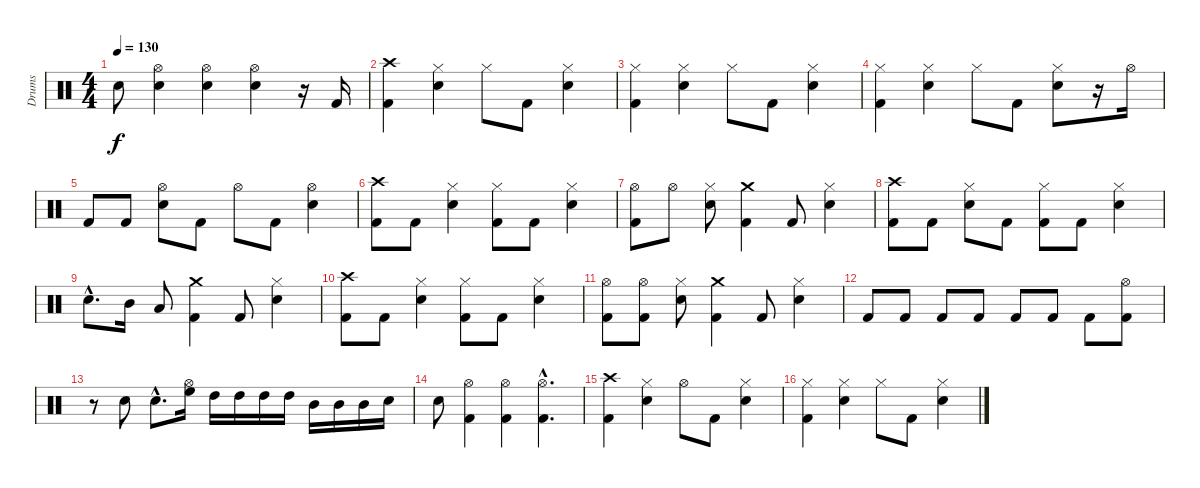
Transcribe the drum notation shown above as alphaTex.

\track ("Drums" "Drums") {instrument percussion}
\staff {score}
\articulation defaults
\ts (4 4)
\tempo 130
\clef neutral
\ks c "Snare (hit) 2".8{dy f}
("Snare (hit) 2" "Hi-Hat (open)").4 ("Snare (hit) 2" "Hi-Hat (open)").4 ("Snare (hit) 2" "Hi-Hat (open)").4 r.16 "Kick (hit) 2".16 |
("Kick (hit) 2" "Crash high (hit)").4 ("Snare (hit) 2" "Hi-Hat (closed)").4 "Hi-Hat (closed)".8 "Kick (hit) 2".8 ("Snare (hit) 2" "Hi-Hat (closed)").4 |
("Kick (hit) 2" "Hi-Hat (closed)").4 ("Snare (hit) 2" "Hi-Hat (closed)").4 "Hi-Hat (closed)".8 "Kick (hit) 2".8 ("Snare (hit) 2" "Hi-Hat (closed)").4 |
("Kick (hit) 2" "Hi-Hat (closed)").4 ("Snare (hit) 2" "Hi-Hat (closed)").4 "Hi-Hat (closed)".8 "Kick (hit) 2".8 ("Snare (hit) 2" "Hi-Hat (closed)").8 r.16 "Hi-Hat (open)".16 |
"Kick (hit) 2".8 "Kick (hit) 2".8 ("Snare (hit) 2" "Hi-Hat (open)").8 "Kick (hit) 2".8 "Hi-Hat (open)".8 "Kick (hit) 2".8 ("Snare (hit) 2" "Hi-Hat (open)").4 |
("Kick (hit) 2" "Crash high (hit)").8 "Kick (hit) 2".8 ("Snare (hit) 2" "Hi-Hat (closed)").4 ("Kick (hit) 2" "Hi-Hat (closed)").8 "Kick (hit) 2".8 ("Snare (hit) 2" "Hi-Hat (closed)").4 |
("Kick (hit) 2" "Hi-Hat (open)").8 "Hi-Hat (open)".8 ("Snare (hit) 2" "Hi-Hat (closed)").8 ("Kick (hit) 2" "Crash medium (hit)").4 "Kick (hit) 2".8 ("Snare (hit) 2" "Hi-Hat (closed)").4 |
("Kick (hit) 2" "Crash high (hit)").8 "Kick (hit) 2".8 ("Snare (hit) 2" "Hi-Hat (closed)").8 "Kick (hit) 2".8 ("Kick (hit) 2" "Hi-Hat (closed)").8 "Kick (hit) 2".8 ("Snare (hit) 2" "Hi-Hat (closed)").4 |
"Snare (hit) 2"{hac}.8{d} "Mid Tom (hit)".16 "Low Tom (hit)".8 ("Kick (hit) 2" "Crash medium (hit)").4 "Kick (hit) 2".8 ("Snare (hit) 2" "Hi-Hat (closed)").4 |
("Kick (hit) 2" "Crash high (hit)").8 "Kick (hit) 2".8 ("Snare (hit) 2" "Hi-Hat (closed)").4 ("Kick (hit) 2" "Hi-Hat (closed)").8 "Kick (hit) 2".8 ("Snare (hit) 2" "Hi-Hat (closed)").4 |
("Kick (hit) 2" "Hi-Hat (open)").8 ("Kick (hit) 2" "Hi-Hat (open)").8 ("Snare (hit) 2" "Hi-Hat (closed)").8 ("Kick (hit) 2" "Crash medium (hit)").4 "Kick (hit) 2".8 ("Snare (hit) 2" "Hi-Hat (closed)").4 |
"Kick (hit) 2".8 "Kick (hit) 2".8 "Kick (hit) 2".8 "Kick (hit) 2".8 "Kick (hit) 2".8 "Kick (hit) 2".8 "Kick (hit) 2".8 ("Kick (hit) 2" "Hi-Hat (open)").8 |
r.8 "Snare (hit) 2".8 "Snare (hit) 2"{hac}.8{d} ("Hi-Hat (open)" "High Floor Tom (hit)").16 "High Tom (hit)".16 "High Tom (hit)".16 "High Tom (hit)".16 "High Tom (hit)".16 "Mid Tom (hit)".16 "Mid Tom (hit)".16 "Mid Tom (hit)".16 "Snare (hit) 2".16 |
"Snare (hit) 2".8 ("Kick (hit) 2" "Hi-Hat (open)").4 ("Kick (hit) 2" "Hi-Hat (open)").4 ("Kick (hit) 2"{hac} "Hi-Hat (open)"{hac}).4{d} |
("Kick (hit) 2" "Crash high (hit)").4 ("Snare (hit) 2" "Hi-Hat (closed)").4 "Hi-Hat (open)".8 "Kick (hit) 2".8 ("Snare (hit) 2" "Hi-Hat (closed)").4 |
("Kick (hit) 2" "Hi-Hat (closed)").4 ("Snare (hit) 2" "Hi-Hat (closed)").4 "Hi-Hat (closed)".8 "Kick (hit) 2".8 ("Snare (hit) 2" "Hi-Hat (closed)").4
